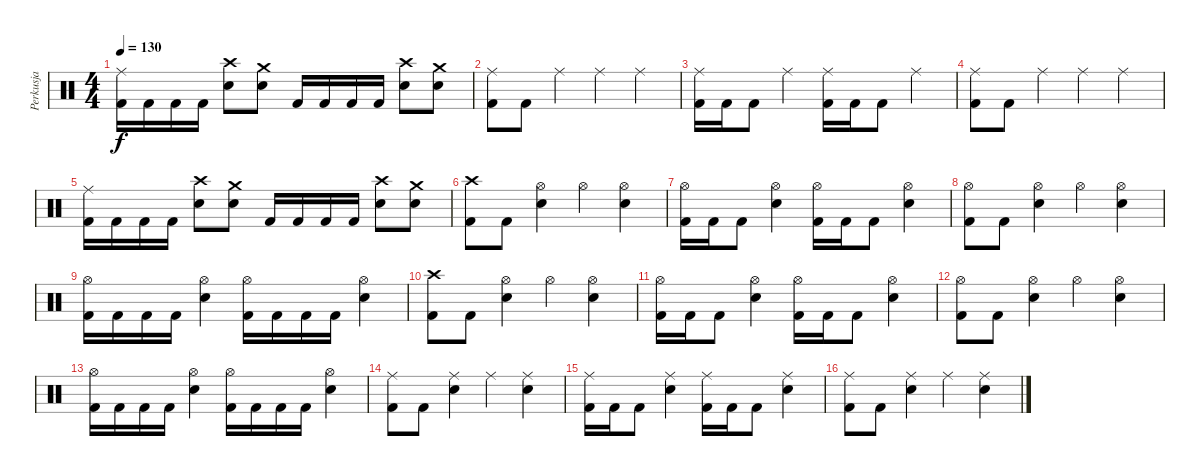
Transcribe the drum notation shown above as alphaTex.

\track ("Perkusja" "Perkusja") {instrument percussion}
\staff {score}
\articulation defaults
\ts (4 4)
\tempo 130
\clef neutral
\ks c
("Ride (middle)" "Kick (hit) 2").16{dy f} "Kick (hit) 2".16 "Kick (hit) 2".16 "Kick (hit) 2".16 ("Crash high (hit)" "Electric Snare (hit)").8 ("Crash medium (hit)" "Electric Snare (hit)").8 "Kick (hit) 2".16 "Kick (hit) 2".16 "Kick (hit) 2".16 "Kick (hit) 2".16 ("Crash high (hit)" "Electric Snare (hit)").8 ("Crash medium (hit)" "Electric Snare (hit)").8 |
("Ride (middle)" "Kick (hit) 2").8 "Kick (hit) 2".8 "Ride (middle)".4 "Ride (middle)".4 "Ride (middle)".4 |
("Ride (middle)" "Kick (hit) 2").16 "Kick (hit) 2".16 "Kick (hit) 2".8 "Ride (middle)".4 ("Ride (middle)" "Kick (hit) 2").16 "Kick (hit) 2".16 "Kick (hit) 2".8 "Ride (middle)".4 |
("Ride (middle)" "Kick (hit) 2").8 "Kick (hit) 2".8 "Ride (middle)".4 "Ride (middle)".4 "Ride (middle)".4 |
("Ride (middle)" "Kick (hit) 2").16 "Kick (hit) 2".16 "Kick (hit) 2".16 "Kick (hit) 2".16 ("Crash high (hit)" "Electric Snare (hit)").8 ("Crash medium (hit)" "Electric Snare (hit)").8 "Kick (hit) 2".16 "Kick (hit) 2".16 "Kick (hit) 2".16 "Kick (hit) 2".16 ("Crash high (hit)" "Electric Snare (hit)").8 ("Crash medium (hit)" "Electric Snare (hit)").8 |
("Crash high (hit)" "Kick (hit) 2").8 "Kick (hit) 2".8 ("Hi-Hat (open)" "Electric Snare (hit)").4 "Hi-Hat (open)".4 ("Hi-Hat (open)" "Electric Snare (hit)").4 |
("Hi-Hat (open)" "Kick (hit) 2").16 "Kick (hit) 2".16 "Kick (hit) 2".8 ("Hi-Hat (open)" "Electric Snare (hit)").4 ("Hi-Hat (open)" "Kick (hit) 2").16 "Kick (hit) 2".16 "Kick (hit) 2".8 ("Hi-Hat (open)" "Electric Snare (hit)").4 |
("Hi-Hat (open)" "Kick (hit) 2").8 "Kick (hit) 2".8 ("Hi-Hat (open)" "Electric Snare (hit)").4 "Hi-Hat (open)".4 ("Hi-Hat (open)" "Electric Snare (hit)").4 |
("Hi-Hat (open)" "Kick (hit) 2").16 "Kick (hit) 2".16 "Kick (hit) 2".16 "Kick (hit) 2".16 ("Hi-Hat (open)" "Electric Snare (hit)").4 ("Hi-Hat (open)" "Kick (hit) 2").16 "Kick (hit) 2".16 "Kick (hit) 2".16 "Kick (hit) 2".16 ("Hi-Hat (open)" "Electric Snare (hit)").4 |
("Crash high (hit)" "Kick (hit) 2").8 "Kick (hit) 2".8 ("Hi-Hat (open)" "Electric Snare (hit)").4 "Hi-Hat (open)".4 ("Hi-Hat (open)" "Electric Snare (hit)").4 |
("Hi-Hat (open)" "Kick (hit) 2").16 "Kick (hit) 2".16 "Kick (hit) 2".8 ("Hi-Hat (open)" "Electric Snare (hit)").4 ("Hi-Hat (open)" "Kick (hit) 2").16 "Kick (hit) 2".16 "Kick (hit) 2".8 ("Hi-Hat (open)" "Electric Snare (hit)").4 |
("Hi-Hat (open)" "Kick (hit) 2").8 "Kick (hit) 2".8 ("Hi-Hat (open)" "Electric Snare (hit)").4 "Hi-Hat (open)".4 ("Hi-Hat (open)" "Electric Snare (hit)").4 |
("Hi-Hat (open)" "Kick (hit) 2").16 "Kick (hit) 2".16 "Kick (hit) 2".16 "Kick (hit) 2".16 ("Hi-Hat (open)" "Electric Snare (hit)").4 ("Hi-Hat (open)" "Kick (hit) 2").16 "Kick (hit) 2".16 "Kick (hit) 2".16 "Kick (hit) 2".16 ("Hi-Hat (open)" "Electric Snare (hit)").4 |
("Ride (middle)" "Kick (hit) 2").8 "Kick (hit) 2".8 ("Ride (middle)" "Electric Snare (hit)").4 "Ride (middle)".4 ("Ride (middle)" "Electric Snare (hit)").4 |
("Ride (middle)" "Kick (hit) 2").16 "Kick (hit) 2".16 "Kick (hit) 2".8 ("Ride (middle)" "Electric Snare (hit)").4 ("Ride (middle)" "Kick (hit) 2").16 "Kick (hit) 2".16 "Kick (hit) 2".8 ("Ride (middle)" "Electric Snare (hit)").4 |
("Ride (middle)" "Kick (hit) 2").8 "Kick (hit) 2".8 ("Ride (middle)" "Electric Snare (hit)").4 "Ride (middle)".4 ("Ride (middle)" "Electric Snare (hit)").4
